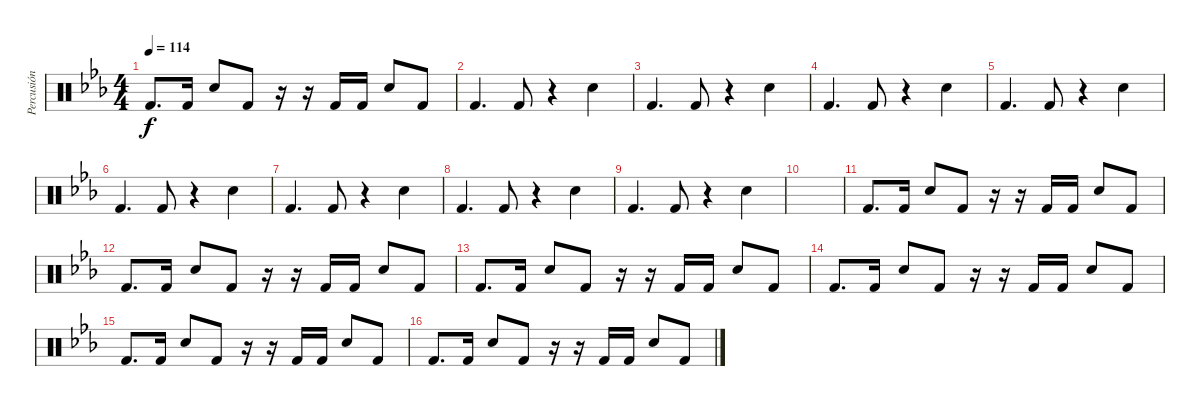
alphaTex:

\track ("Percusión" "Percusión") {instrument percussion}
\staff {score}
\articulation defaults
\ts (4 4)
\tempo 114
\clef neutral
\ks eb "Kick (hit) 2".8{d dy f} "Kick (hit) 2".16 "Electric Snare (hit)".8 "Kick (hit) 2".8
r.16 r.16 "Kick (hit) 2".16 "Kick (hit) 2".16 "Electric Snare (hit)".8 "Kick (hit) 2".8 |
"Kick (hit) 2".4{d} "Kick (hit) 2".8 r.4 "Electric Snare (hit)".4 |
"Kick (hit) 2".4{d} "Kick (hit) 2".8 r.4 "Electric Snare (hit)".4 |
"Kick (hit) 2".4{d} "Kick (hit) 2".8 r.4 "Electric Snare (hit)".4 |
"Kick (hit) 2".4{d} "Kick (hit) 2".8 r.4 "Electric Snare (hit)".4 |
"Kick (hit) 2".4{d} "Kick (hit) 2".8 r.4 "Electric Snare (hit)".4 |
"Kick (hit) 2".4{d} "Kick (hit) 2".8 r.4 "Electric Snare (hit)".4 |
"Kick (hit) 2".4{d} "Kick (hit) 2".8 r.4 "Electric Snare (hit)".4 |
"Kick (hit) 2".4{d} "Kick (hit) 2".8 r.4 "Electric Snare (hit)".4 |
|
"Kick (hit) 2".8{d} "Kick (hit) 2".16 "Electric Snare (hit)".8 "Kick (hit) 2".8 r.16 r.16 "Kick (hit) 2".16 "Kick (hit) 2".16 "Electric Snare (hit)".8 "Kick (hit) 2".8 |
"Kick (hit) 2".8{d} "Kick (hit) 2".16 "Electric Snare (hit)".8 "Kick (hit) 2".8 r.16 r.16 "Kick (hit) 2".16 "Kick (hit) 2".16 "Electric Snare (hit)".8 "Kick (hit) 2".8 |
"Kick (hit) 2".8{d} "Kick (hit) 2".16 "Electric Snare (hit)".8 "Kick (hit) 2".8 r.16 r.16 "Kick (hit) 2".16 "Kick (hit) 2".16 "Electric Snare (hit)".8 "Kick (hit) 2".8 |
"Kick (hit) 2".8{d} "Kick (hit) 2".16 "Electric Snare (hit)".8 "Kick (hit) 2".8 r.16 r.16 "Kick (hit) 2".16 "Kick (hit) 2".16 "Electric Snare (hit)".8 "Kick (hit) 2".8 |
"Kick (hit) 2".8{d} "Kick (hit) 2".16 "Electric Snare (hit)".8 "Kick (hit) 2".8 r.16 r.16 "Kick (hit) 2".16 "Kick (hit) 2".16 "Electric Snare (hit)".8 "Kick (hit) 2".8 |
"Kick (hit) 2".8{d} "Kick (hit) 2".16 "Electric Snare (hit)".8 "Kick (hit) 2".8 r.16 r.16 "Kick (hit) 2".16 "Kick (hit) 2".16 "Electric Snare (hit)".8 "Kick (hit) 2".8
